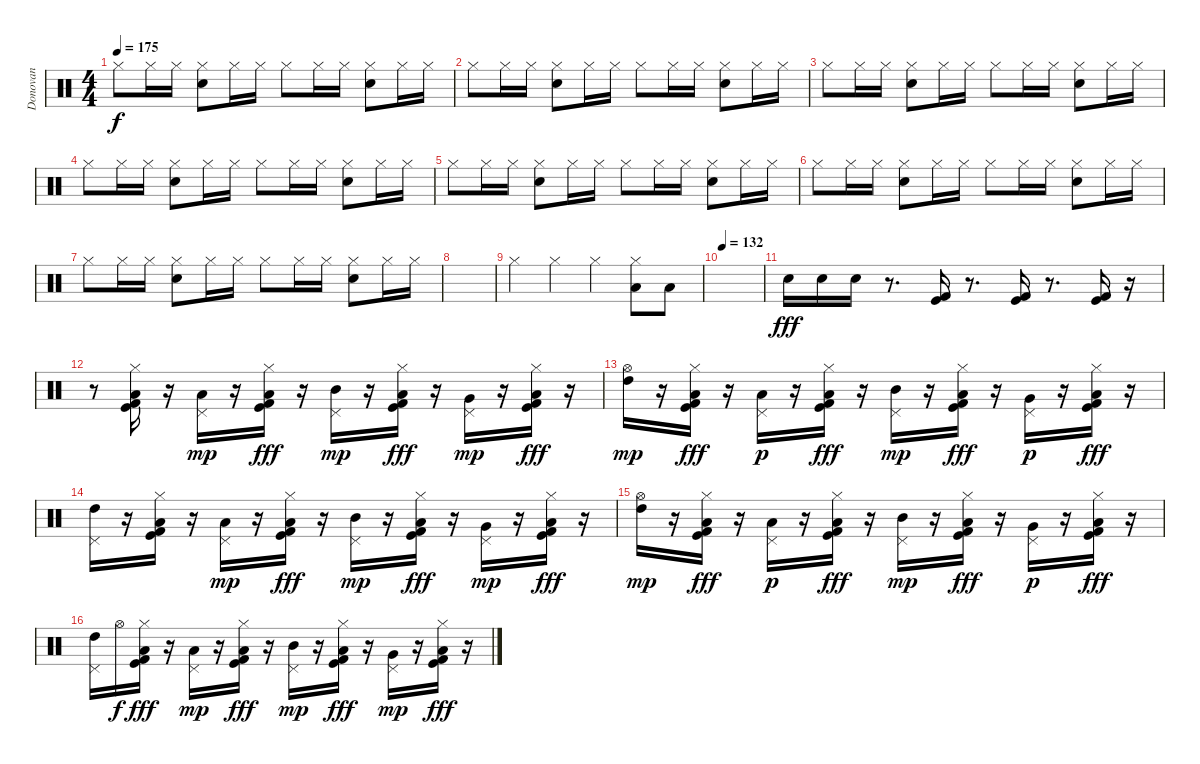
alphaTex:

\track ("Donovan" "Donovan") {instrument percussion}
\staff {score}
\articulation defaults
\ts (4 4)
\tempo 175
\clef neutral
\ks c "Hi-Hat (closed)".8{dy f} "Hi-Hat (closed)".16 "Hi-Hat (closed)".16
("Hi-Hat (closed)" "Snare (hit) 2").8 "Hi-Hat (closed)".16 "Hi-Hat (closed)".16 "Hi-Hat (closed)".8 "Hi-Hat (closed)".16 "Hi-Hat (closed)".16 ("Hi-Hat (closed)" "Snare (hit) 2").8 "Hi-Hat (closed)".16 "Hi-Hat (closed)".16 |
"Hi-Hat (closed)".8 "Hi-Hat (closed)".16 "Hi-Hat (closed)".16 ("Hi-Hat (closed)" "Snare (hit) 2").8 "Hi-Hat (closed)".16 "Hi-Hat (closed)".16 "Hi-Hat (closed)".8 "Hi-Hat (closed)".16 "Hi-Hat (closed)".16 ("Hi-Hat (closed)" "Snare (hit) 2").8 "Hi-Hat (closed)".16 "Hi-Hat (closed)".16 |
"Hi-Hat (closed)".8 "Hi-Hat (closed)".16 "Hi-Hat (closed)".16 ("Hi-Hat (closed)" "Snare (hit) 2").8 "Hi-Hat (closed)".16 "Hi-Hat (closed)".16 "Hi-Hat (closed)".8 "Hi-Hat (closed)".16 "Hi-Hat (closed)".16 ("Hi-Hat (closed)" "Snare (hit) 2").8 "Hi-Hat (closed)".16 "Hi-Hat (closed)".16 |
"Hi-Hat (closed)".8 "Hi-Hat (closed)".16 "Hi-Hat (closed)".16 ("Hi-Hat (closed)" "Snare (hit) 2").8 "Hi-Hat (closed)".16 "Hi-Hat (closed)".16 "Hi-Hat (closed)".8 "Hi-Hat (closed)".16 "Hi-Hat (closed)".16 ("Hi-Hat (closed)" "Snare (hit) 2").8 "Hi-Hat (closed)".16 "Hi-Hat (closed)".16 |
"Hi-Hat (closed)".8 "Hi-Hat (closed)".16 "Hi-Hat (closed)".16 ("Hi-Hat (closed)" "Snare (hit) 2").8 "Hi-Hat (closed)".16 "Hi-Hat (closed)".16 "Hi-Hat (closed)".8 "Hi-Hat (closed)".16 "Hi-Hat (closed)".16 ("Hi-Hat (closed)" "Snare (hit) 2").8 "Hi-Hat (closed)".16 "Hi-Hat (closed)".16 |
"Hi-Hat (closed)".8 "Hi-Hat (closed)".16 "Hi-Hat (closed)".16 ("Hi-Hat (closed)" "Snare (hit) 2").8 "Hi-Hat (closed)".16 "Hi-Hat (closed)".16 "Hi-Hat (closed)".8 "Hi-Hat (closed)".16 "Hi-Hat (closed)".16 ("Hi-Hat (closed)" "Snare (hit) 2").8 "Hi-Hat (closed)".16 "Hi-Hat (closed)".16 |
"Hi-Hat (closed)".8 "Hi-Hat (closed)".16 "Hi-Hat (closed)".16 ("Hi-Hat (closed)" "Snare (hit) 2").8 "Hi-Hat (closed)".16 "Hi-Hat (closed)".16 "Hi-Hat (closed)".8 "Hi-Hat (closed)".16 "Hi-Hat (closed)".16 ("Hi-Hat (closed)" "Snare (hit) 2").8 "Hi-Hat (closed)".16 "Hi-Hat (closed)".16 |
|
"Hi-Hat (closed)".4 "Hi-Hat (closed)".4 "Hi-Hat (closed)".4 ("Hi-Hat (closed)" "Low Tom (hit)").8 "Low Tom (hit)".8 |
\tempo 132
|
"Electric Snare (hit)".16{dy fff} "Electric Snare (hit)".16 "Electric Snare (hit)".16 r.8{d} ("Kick (hit) 2" "Kick (hit)").16 r.8{d} ("Kick (hit)" "Kick (hit) 2").16 r.8{d} ("Kick (hit)" "Kick (hit) 2").16 r.16 |
r.8 ("Low Floor Tom (hit)" "Hi-Hat (closed)" "Kick (hit)" "Kick (hit) 2").16 r.16 ("Low Tom (hit)" "Pedal Hi-Hat (hit)").16{dy mp} r.16 ("Low Floor Tom (hit)" "Hi-Hat (closed)" "Kick (hit)" "Kick (hit) 2").16{dy fff} r.16 ("Mid Tom (hit)" "Pedal Hi-Hat (hit)").16{dy mp} r.16 ("Low Floor Tom (hit)" "Hi-Hat (closed)" "Kick (hit)" "Kick (hit) 2").16{dy fff} r.16 ("Very Low Tom (hit)" "Pedal Hi-Hat (hit)").16{dy mp} r.16 ("Low Floor Tom (hit)" "Hi-Hat (closed)" "Kick (hit)" "Kick (hit) 2").16{dy fff} r.16 |
("High Tom (hit)" "Hi-Hat (open)").16{dy mp} r.16 ("Low Floor Tom (hit)" "Hi-Hat (closed)" "Kick (hit) 2" "Kick (hit)").16{dy fff} r.16 ("Low Tom (hit)" "Pedal Hi-Hat (hit)").16{dy p} r.16 ("Low Floor Tom (hit)" "Hi-Hat (closed)" "Kick (hit) 2" "Kick (hit)").16{dy fff} r.16 ("Mid Tom (hit)" "Pedal Hi-Hat (hit)").16{dy mp} r.16 ("Low Floor Tom (hit)" "Hi-Hat (closed)" "Kick (hit) 2" "Kick (hit)").16{dy fff} r.16 ("Very Low Tom (hit)" "Pedal Hi-Hat (hit)").16{dy p} r.16 ("Low Floor Tom (hit)" "Hi-Hat (closed)" "Kick (hit) 2" "Kick (hit)").16{dy fff} r.16 |
("High Tom (hit)" "Pedal Hi-Hat (hit)").16 r.16 ("Low Floor Tom (hit)" "Hi-Hat (closed)" "Kick (hit)" "Kick (hit) 2").16 r.16 ("Low Tom (hit)" "Pedal Hi-Hat (hit)").16{dy mp} r.16 ("Low Floor Tom (hit)" "Hi-Hat (closed)" "Kick (hit)" "Kick (hit) 2").16{dy fff} r.16 ("Mid Tom (hit)" "Pedal Hi-Hat (hit)").16{dy mp} r.16 ("Low Floor Tom (hit)" "Hi-Hat (closed)" "Kick (hit)" "Kick (hit) 2").16{dy fff} r.16 ("Very Low Tom (hit)" "Pedal Hi-Hat (hit)").16{dy mp} r.16 ("Low Floor Tom (hit)" "Hi-Hat (closed)" "Kick (hit)" "Kick (hit) 2").16{dy fff} r.16 |
("High Tom (hit)" "Hi-Hat (open)").16{dy mp} r.16 ("Low Floor Tom (hit)" "Hi-Hat (closed)" "Kick (hit) 2" "Kick (hit)").16{dy fff} r.16 ("Low Tom (hit)" "Pedal Hi-Hat (hit)").16{dy p} r.16 ("Low Floor Tom (hit)" "Hi-Hat (closed)" "Kick (hit) 2" "Kick (hit)").16{dy fff} r.16 ("Mid Tom (hit)" "Pedal Hi-Hat (hit)").16{dy mp} r.16 ("Low Floor Tom (hit)" "Hi-Hat (closed)" "Kick (hit) 2" "Kick (hit)").16{dy fff} r.16 ("Very Low Tom (hit)" "Pedal Hi-Hat (hit)").16{dy p} r.16 ("Low Floor Tom (hit)" "Hi-Hat (closed)" "Kick (hit) 2" "Kick (hit)").16{dy fff} r.16 |
("High Tom (hit)" "Pedal Hi-Hat (hit)").16 "Hi-Hat (open)".16{dy f} ("Low Floor Tom (hit)" "Hi-Hat (closed)" "Kick (hit)" "Kick (hit) 2").16{dy fff} r.16 ("Low Tom (hit)" "Pedal Hi-Hat (hit)").16{dy mp} r.16 ("Low Floor Tom (hit)" "Hi-Hat (closed)" "Kick (hit)" "Kick (hit) 2").16{dy fff} r.16 ("Mid Tom (hit)" "Pedal Hi-Hat (hit)").16{dy mp} r.16 ("Low Floor Tom (hit)" "Hi-Hat (closed)" "Kick (hit)" "Kick (hit) 2").16{dy fff} r.16 ("Very Low Tom (hit)" "Pedal Hi-Hat (hit)").16{dy mp} r.16 ("Low Floor Tom (hit)" "Hi-Hat (closed)" "Kick (hit)" "Kick (hit) 2").16{dy fff} r.16
